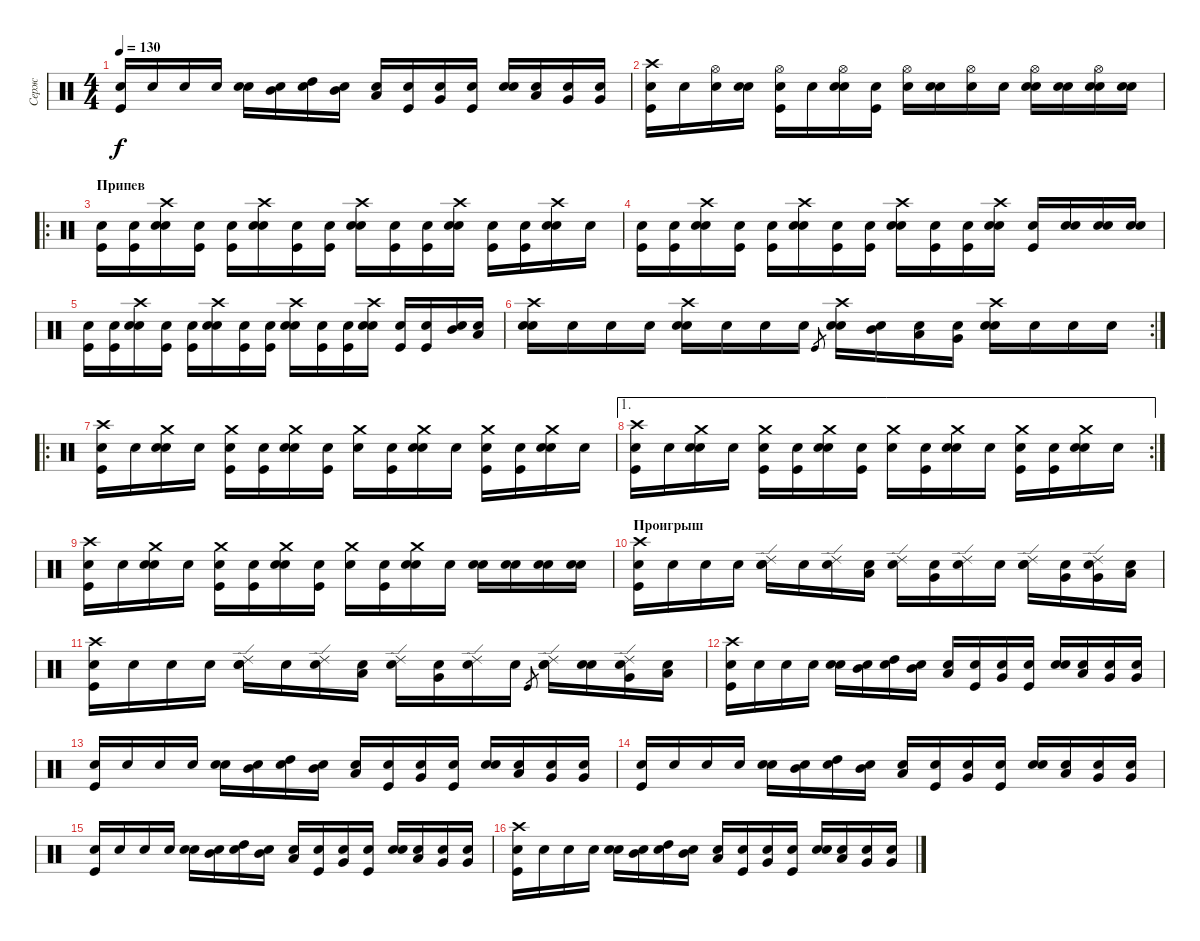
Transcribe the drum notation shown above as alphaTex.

\track ("Серж" "Серж") {instrument percussion}
\staff {score}
\articulation defaults
\ts (4 4)
\tempo 130
\clef neutral
\ks c
("Snare (hit)"{x} "Kick (hit)").16{dy f} "Snare (hit)"{x}.16 "Snare (hit)"{x}.16 "Snare (hit)"{x}.16 ("Snare (hit)"{x} "Snare (hit) 2").16 ("Snare (hit)"{x} "Mid Tom (hit)").16 ("Snare (hit)"{x} "High Tom (hit)").16 ("Snare (hit)"{x} "Mid Tom (hit)").16 ("Snare (hit)"{x} "Low Tom (hit)").16 ("Snare (hit)"{x} "Kick (hit)").16 ("Snare (hit)"{x} "Very Low Tom (hit)").16 ("Snare (hit)"{x} "Kick (hit)").16 ("Snare (hit)"{x} "Snare (hit) 2").16 ("Snare (hit)"{x} "Low Tom (hit)").16 ("Snare (hit)"{x} "Very Low Tom (hit)").16 ("Snare (hit)"{x} "Very Low Tom (hit)").16 |
("Snare (hit)"{x} "Kick (hit)" "Crash high (hit)").16 "Snare (hit)"{x}.16 ("Snare (hit)"{x} "Hi-Hat (open)").16 ("Snare (hit)"{x} "Snare (hit) 2").16 ("Snare (hit)"{x} "Kick (hit)" "Hi-Hat (open)").16 "Snare (hit)"{x}.16 ("Snare (hit)"{x} "Snare (hit) 2" "Hi-Hat (open)").16 ("Snare (hit)"{x} "Kick (hit)").16 ("Snare (hit)"{x} "Hi-Hat (open)").16 ("Snare (hit)"{x} "Snare (hit) 2").16 ("Snare (hit)"{x} "Hi-Hat (open)").16 "Snare (hit)"{x}.16 ("Snare (hit)"{x} "Snare (hit) 2" "Hi-Hat (open)").16 ("Snare (hit)"{x} "Snare (hit) 2").16 ("Snare (hit)"{x} "Snare (hit) 2" "Hi-Hat (open)").16 ("Snare (hit)"{x} "Snare (hit) 2").16 |
\ro
\section ("" "Припев")
("Snare (hit)"{x} "Kick (hit)").16 ("Snare (hit)"{x} "Kick (hit)").16 ("Snare (hit)"{x} "Snare (hit) 2" "Crash high (hit)").16 ("Snare (hit)"{x} "Kick (hit)").16 ("Snare (hit)"{x} "Kick (hit)").16 ("Snare (hit)"{x} "Snare (hit) 2" "Crash high (hit)").16 ("Snare (hit)"{x} "Kick (hit)").16 ("Snare (hit)"{x} "Kick (hit)").16 ("Snare (hit)"{x} "Snare (hit) 2" "Crash high (hit)").16 ("Snare (hit)"{x} "Kick (hit)").16 ("Snare (hit)"{x} "Kick (hit)").16 ("Snare (hit)"{x} "Snare (hit) 2" "Crash high (hit)").16 ("Snare (hit)"{x} "Kick (hit)").16 ("Snare (hit)"{x} "Kick (hit)").16 ("Snare (hit)"{x} "Snare (hit) 2" "Crash high (hit)").16 "Snare (hit)"{x}.16 |
("Snare (hit)"{x} "Kick (hit)").16 ("Snare (hit)"{x} "Kick (hit)").16 ("Snare (hit)"{x} "Snare (hit) 2" "Crash high (hit)").16 ("Snare (hit)"{x} "Kick (hit)").16 ("Snare (hit)"{x} "Kick (hit)").16 ("Snare (hit)"{x} "Snare (hit) 2" "Crash high (hit)").16 ("Snare (hit)"{x} "Kick (hit)").16 ("Snare (hit)"{x} "Kick (hit)").16 ("Snare (hit)"{x} "Snare (hit) 2" "Crash high (hit)").16 ("Snare (hit)"{x} "Kick (hit)").16 ("Snare (hit)"{x} "Kick (hit)").16 ("Snare (hit)"{x} "Snare (hit) 2" "Crash high (hit)").16 ("Snare (hit)"{x} "Kick (hit)").16 ("Snare (hit)"{x} "Snare (hit) 2").16 ("Snare (hit)"{x} "Snare (hit) 2").16 ("Snare (hit)"{x} "Snare (hit) 2").16 |
("Snare (hit)"{x} "Kick (hit)").16 ("Snare (hit)"{x} "Kick (hit)").16 ("Snare (hit)"{x} "Snare (hit) 2" "Crash high (hit)").16 ("Snare (hit)"{x} "Kick (hit)").16 ("Snare (hit)"{x} "Kick (hit)").16 ("Snare (hit)"{x} "Snare (hit) 2" "Crash high (hit)").16 ("Snare (hit)"{x} "Kick (hit)").16 ("Snare (hit)"{x} "Kick (hit)").16 ("Snare (hit)"{x} "Snare (hit) 2" "Crash high (hit)").16 ("Snare (hit)"{x} "Kick (hit)").16 ("Snare (hit)"{x} "Kick (hit)").16 ("Snare (hit)"{x} "Snare (hit) 2" "Crash high (hit)").16 ("Snare (hit)"{x} "Kick (hit)").16 ("Snare (hit)"{x} "Kick (hit)").16 ("Snare (hit)"{x} "Mid Tom (hit)").16 ("Snare (hit)"{x} "Low Tom (hit)").16 |
\rc 2
("Snare (hit)"{x} "Snare (hit) 2" "Crash high (hit)").16 "Snare (hit)"{x}.16 "Snare (hit)"{x}.16 "Snare (hit)"{x}.16 ("Snare (hit)"{x} "Snare (hit) 2" "Crash high (hit)").16 "Snare (hit)"{x}.16 "Snare (hit)"{x}.16 "Snare (hit)"{x}.16 "Kick (hit)".8{gr} ("Snare (hit)"{x} "Snare (hit) 2" "Crash high (hit)").16 ("Snare (hit)"{x} "Mid Tom (hit)").16 ("Snare (hit)"{x} "Low Tom (hit)").16 ("Snare (hit)"{x} "Very Low Tom (hit)").16 ("Snare (hit)"{x} "Snare (hit) 2" "Crash high (hit)").16 "Snare (hit)"{x}.16 "Snare (hit)"{x}.16 "Snare (hit)"{x}.16 |
\ro
("Snare (hit)"{x} "Kick (hit)" "Crash high (hit)").16 "Snare (hit)"{x}.16 ("Snare (hit)"{x} "Snare (hit) 2" "Crash medium (hit)").16 "Snare (hit)"{x}.16 ("Snare (hit)"{x} "Kick (hit)" "Crash medium (hit)").16 ("Snare (hit)"{x} "Kick (hit)").16 ("Snare (hit)"{x} "Snare (hit) 2" "Crash medium (hit)").16 ("Snare (hit)"{x} "Kick (hit)").16 ("Snare (hit)"{x} "Crash medium (hit)").16 ("Snare (hit)"{x} "Kick (hit)").16 ("Snare (hit)"{x} "Snare (hit) 2" "Crash medium (hit)").16 "Snare (hit)"{x}.16 ("Snare (hit)"{x} "Kick (hit)" "Crash medium (hit)").16 ("Snare (hit)"{x} "Kick (hit)").16 ("Snare (hit)"{x} "Snare (hit) 2" "Crash medium (hit)").16 "Snare (hit)"{x}.16 |
\ae 1
\rc 2
("Snare (hit)"{x} "Kick (hit)" "Crash high (hit)").16 "Snare (hit)"{x}.16 ("Snare (hit)"{x} "Snare (hit) 2" "Crash medium (hit)").16 "Snare (hit)"{x}.16 ("Snare (hit)"{x} "Kick (hit)" "Crash medium (hit)").16 ("Snare (hit)"{x} "Kick (hit)").16 ("Snare (hit)"{x} "Snare (hit) 2" "Crash medium (hit)").16 ("Snare (hit)"{x} "Kick (hit)").16 ("Snare (hit)"{x} "Crash medium (hit)").16 ("Snare (hit)"{x} "Kick (hit)").16 ("Snare (hit)"{x} "Snare (hit) 2" "Crash medium (hit)").16 "Snare (hit)"{x}.16 ("Snare (hit)"{x} "Kick (hit)" "Crash medium (hit)").16 ("Snare (hit)"{x} "Kick (hit)").16 ("Snare (hit)"{x} "Snare (hit) 2" "Crash medium (hit)").16 "Snare (hit)"{x}.16 |
("Snare (hit)"{x} "Kick (hit)" "Crash high (hit)").16 "Snare (hit)"{x}.16 ("Snare (hit)"{x} "Snare (hit) 2" "Crash medium (hit)").16 "Snare (hit)"{x}.16 ("Snare (hit)"{x} "Kick (hit)" "Crash medium (hit)").16 ("Snare (hit)"{x} "Kick (hit)").16 ("Snare (hit)"{x} "Snare (hit) 2" "Crash medium (hit)").16 ("Snare (hit)"{x} "Kick (hit)").16 ("Snare (hit)"{x} "Crash medium (hit)").16 ("Snare (hit)"{x} "Kick (hit)").16 ("Snare (hit)"{x} "Snare (hit) 2" "Crash medium (hit)").16 "Snare (hit)"{x}.16 ("Snare (hit)"{x} "Snare (hit) 2").16 ("Snare (hit)"{x} "Snare (hit) 2").16 ("Snare (hit)"{x} "Snare (hit) 2").16 ("Snare (hit)"{x} "Snare (hit) 2").16 |
\section ("" "Проигрыш")
("Snare (hit)"{x} "Kick (hit)" "Crash high (hit)").16 "Snare (hit)"{x}.16 "Snare (hit)"{x}.16 "Snare (hit)"{x}.16 ("Snare (hit)"{x} "Snare (hit) 2" "Ride (edge) 2").16 "Snare (hit)"{x}.16 ("Snare (hit)"{x} "Ride (edge) 2").16 ("Snare (hit)"{x} "Low Tom (hit)").16 ("Snare (hit)"{x} "Ride (edge) 2").16 ("Snare (hit)"{x} "Very Low Tom (hit)").16 ("Snare (hit)"{x} "Ride (edge) 2").16 "Snare (hit)"{x}.16 ("Snare (hit)"{x} "Snare (hit) 2" "Ride (edge) 2").16 ("Snare (hit)"{x} "Very Low Tom (hit)").16 ("Snare (hit)"{x} "Very Low Tom (hit)" "Ride (edge) 2").16 ("Snare (hit)"{x} "Low Floor Tom (hit)").16 |
("Snare (hit)"{x} "Kick (hit)" "Crash high (hit)").16 "Snare (hit)"{x}.16 "Snare (hit)"{x}.16 "Snare (hit)"{x}.16 ("Snare (hit)"{x} "Snare (hit) 2" "Ride (edge) 2").16 "Snare (hit)"{x}.16 ("Snare (hit)"{x} "Ride (edge) 2").16 ("Snare (hit)"{x} "Low Tom (hit)").16 ("Snare (hit)"{x} "Ride (edge) 2").16 ("Snare (hit)"{x} "Very Low Tom (hit)").16 ("Snare (hit)"{x} "Ride (edge) 2").16 "Snare (hit)"{x}.16 "Kick (hit)".8{gr} ("Snare (hit)"{x} "Snare (hit) 2" "Ride (edge) 2").16 ("Snare (hit)"{x} "Snare (hit) 2").16 ("Snare (hit)"{x} "Very Low Tom (hit)" "Ride (edge) 2").16 ("Snare (hit)"{x} "Low Floor Tom (hit)").16 |
("Snare (hit)"{x} "Kick (hit)" "Crash high (hit)").16 "Snare (hit)"{x}.16 "Snare (hit)"{x}.16 "Snare (hit)"{x}.16 ("Snare (hit)"{x} "Snare (hit) 2").16 ("Snare (hit)"{x} "Mid Tom (hit)").16 ("Snare (hit)"{x} "High Tom (hit)").16 ("Snare (hit)"{x} "Mid Tom (hit)").16 ("Snare (hit)"{x} "Low Tom (hit)").16 ("Snare (hit)"{x} "Kick (hit)").16 ("Snare (hit)"{x} "Very Low Tom (hit)").16 ("Snare (hit)"{x} "Kick (hit)").16 ("Snare (hit)"{x} "Snare (hit) 2").16 ("Snare (hit)"{x} "Low Tom (hit)").16 ("Snare (hit)"{x} "Very Low Tom (hit)").16 ("Snare (hit)"{x} "Very Low Tom (hit)").16 |
("Snare (hit)"{x} "Kick (hit)").16 "Snare (hit)"{x}.16 "Snare (hit)"{x}.16 "Snare (hit)"{x}.16 ("Snare (hit)"{x} "Snare (hit) 2").16 ("Snare (hit)"{x} "Mid Tom (hit)").16 ("Snare (hit)"{x} "High Tom (hit)").16 ("Snare (hit)"{x} "Mid Tom (hit)").16 ("Snare (hit)"{x} "Low Tom (hit)").16 ("Snare (hit)"{x} "Kick (hit)").16 ("Snare (hit)"{x} "Very Low Tom (hit)").16 ("Snare (hit)"{x} "Kick (hit)").16 ("Snare (hit)"{x} "Snare (hit) 2").16 ("Snare (hit)"{x} "Low Tom (hit)").16 ("Snare (hit)"{x} "Very Low Tom (hit)").16 ("Snare (hit)"{x} "Very Low Tom (hit)").16 |
("Snare (hit)"{x} "Kick (hit)").16 "Snare (hit)"{x}.16 "Snare (hit)"{x}.16 "Snare (hit)"{x}.16 ("Snare (hit)"{x} "Snare (hit) 2").16 ("Snare (hit)"{x} "Mid Tom (hit)").16 ("Snare (hit)"{x} "High Tom (hit)").16 ("Snare (hit)"{x} "Mid Tom (hit)").16 ("Snare (hit)"{x} "Low Tom (hit)").16 ("Snare (hit)"{x} "Kick (hit)").16 ("Snare (hit)"{x} "Very Low Tom (hit)").16 ("Snare (hit)"{x} "Kick (hit)").16 ("Snare (hit)"{x} "Snare (hit) 2").16 ("Snare (hit)"{x} "Low Tom (hit)").16 ("Snare (hit)"{x} "Very Low Tom (hit)").16 ("Snare (hit)"{x} "Very Low Tom (hit)").16 |
("Snare (hit)"{x} "Kick (hit)").16 "Snare (hit)"{x}.16 "Snare (hit)"{x}.16 "Snare (hit)"{x}.16 ("Snare (hit)"{x} "Snare (hit) 2").16 ("Snare (hit)"{x} "Mid Tom (hit)").16 ("Snare (hit)"{x} "High Tom (hit)").16 ("Snare (hit)"{x} "Mid Tom (hit)").16 ("Snare (hit)"{x} "Low Tom (hit)").16 ("Snare (hit)"{x} "Kick (hit)").16 ("Snare (hit)"{x} "Very Low Tom (hit)").16 ("Snare (hit)"{x} "Kick (hit)").16 ("Snare (hit)"{x} "Snare (hit) 2").16 ("Snare (hit)"{x} "Low Tom (hit)").16 ("Snare (hit)"{x} "Very Low Tom (hit)").16 ("Snare (hit)"{x} "Very Low Tom (hit)").16 |
("Snare (hit)"{x} "Kick (hit)" "Crash high (hit)").16 "Snare (hit)"{x}.16 "Snare (hit)"{x}.16 "Snare (hit)"{x}.16 ("Snare (hit)"{x} "Snare (hit) 2").16 ("Snare (hit)"{x} "Mid Tom (hit)").16 ("Snare (hit)"{x} "High Tom (hit)").16 ("Snare (hit)"{x} "Mid Tom (hit)").16 ("Snare (hit)"{x} "Low Tom (hit)").16 ("Snare (hit)"{x} "Kick (hit)").16 ("Snare (hit)"{x} "Very Low Tom (hit)").16 ("Snare (hit)"{x} "Kick (hit)").16 ("Snare (hit)"{x} "Snare (hit) 2").16 ("Snare (hit)"{x} "Low Tom (hit)").16 ("Snare (hit)"{x} "Very Low Tom (hit)").16 ("Snare (hit)"{x} "Very Low Tom (hit)").16
